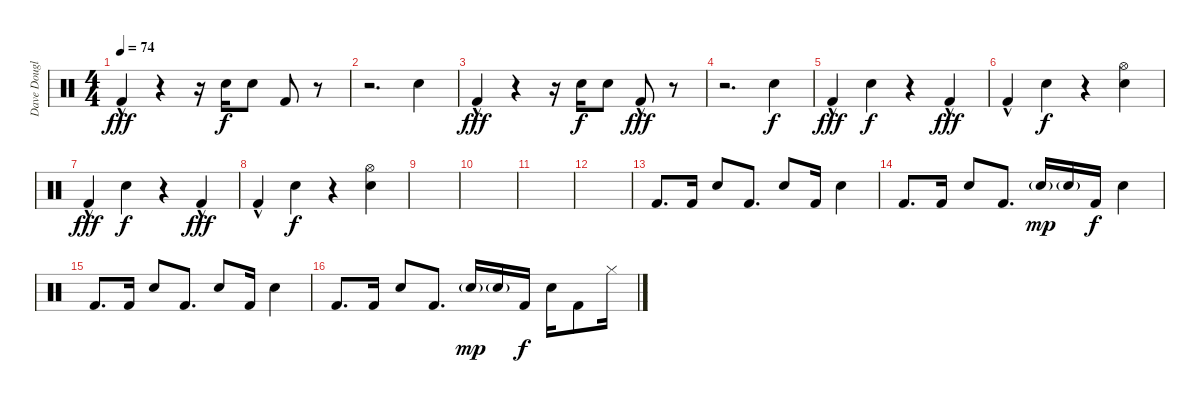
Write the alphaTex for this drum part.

\track ("Dave Douglas - Drums" "Dave Dougl") {instrument percussion}
\staff {score}
\articulation defaults
\ts (4 4)
\tempo 74
\clef neutral
\ks c "Kick (hit) 2"{hac}.4{dy fff}
r.4 r.16 "Electric Snare (hit)".16{dy f} "Electric Snare (hit)".8 "Kick (hit) 2".8 r.8 |
r.2{d} "Snare (hit) 2".4 |
"Kick (hit) 2"{hac}.4{dy fff} r.4 r.16 "Electric Snare (hit)".16{dy f} "Electric Snare (hit)".8 "Kick (hit) 2"{hac}.8{dy fff} r.8 |
r.2{d} "Snare (hit) 2".4{dy f} |
"Kick (hit) 2"{hac}.4{dy fff} "Snare (hit) 2".4{dy f} r.4 "Kick (hit) 2"{hac}.4{dy fff} |
"Kick (hit) 2"{hac}.4 "Snare (hit) 2".4{dy f} r.4 ("Hi-Hat (open)" "Snare (hit) 2").4 |
"Kick (hit) 2"{hac}.4{dy fff} "Snare (hit) 2".4{dy f} r.4 "Kick (hit) 2"{hac}.4{dy fff} |
"Kick (hit) 2"{hac}.4 "Snare (hit) 2".4{dy f} r.4 ("Hi-Hat (open)" "Snare (hit) 2").4 |
|
|
|
|
"Kick (hit) 2".8{d} "Kick (hit) 2".16 "Snare (hit) 2".8 "Kick (hit) 2".8{d} "Snare (hit) 2".8 "Kick (hit) 2".16 "Snare (hit) 2".4 |
"Kick (hit) 2".8{d} "Kick (hit) 2".16 "Snare (hit) 2".8 "Kick (hit) 2".8{d} "Electric Snare (hit)"{g}.16{dy mp} "Electric Snare (hit)"{g}.16 "Kick (hit) 2".16{dy f} "Snare (hit) 2".4 |
"Kick (hit) 2".8{d} "Kick (hit) 2".16 "Snare (hit) 2".8 "Kick (hit) 2".8{d} "Snare (hit) 2".8 "Kick (hit) 2".16 "Snare (hit) 2".4 |
"Kick (hit) 2".8{d} "Kick (hit) 2".16 "Snare (hit) 2".8 "Kick (hit) 2".8{d} "Electric Snare (hit)"{g}.16{dy mp} "Electric Snare (hit)"{g}.16 "Kick (hit) 2".16{dy f} "Snare (hit) 2".16 "Kick (hit) 2".8 "Hi-Hat (closed)".16
